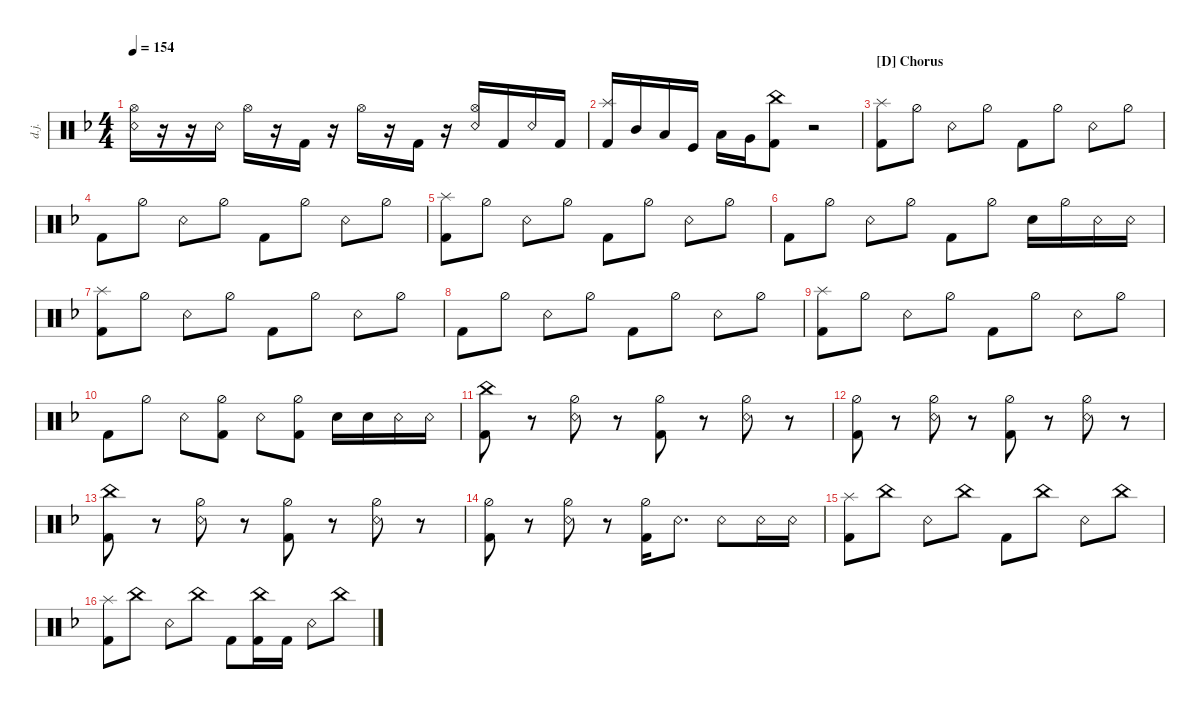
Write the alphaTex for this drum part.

\defaultSystemsLayout 4
\hideDynamics
\bracketExtendMode nobrackets
\otherSystemsTrackNameOrientation horizontal
\track ("Drumkit Jason" "d.j.") {instrument percussion}
\staff {score}
\articulation defaults
\ts (4 4)
\tempo 154
\clef neutral
\ks dminor
("Hi-Hat (open)"{acc forcenatural} "Snare (rim shot)"{acc forcenatural}).16{dy ff beam Down} r.16{beam Down} r.16{beam Down} "Snare (rim shot)"{acc forcenatural}.16{beam Down} "Hi-Hat (open)"{acc forcenatural}.16{beam Down} r.16{beam Down} "Kick (hit) 2"{acc forcenatural}.16{beam Down} r.16{beam Down} "Hi-Hat (open)"{acc forcenatural}.16{beam Down} r.16{beam Down} "Kick (hit) 2"{acc forcenatural}.16{beam Down} r.16{beam Down} ("Hi-Hat (open)"{acc forcenatural} "Snare (rim shot)"{acc forcenatural}).16{beam Up} "Kick (hit) 2"{acc forcenatural}.16{beam Up} "Snare (rim shot)"{acc forcenatural}.16{beam Up} "Kick (hit) 2"{acc forcenatural}.16{beam Up} |
("Splash (hit)"{acc forcenatural} "Kick (hit) 2"{acc forcenatural}).16{beam Up} "Mid Tom (hit)"{acc forcenatural}.16{beam Up} "Low Tom (hit)"{acc forcenatural}.16{beam Up} "Kick (hit)"{acc forcenatural}.16{beam Up} "Low Tom (hit)"{acc forcenatural}.16{beam Down} "Very Low Tom (hit)"{acc forcenatural}.16{beam Down} ("China (hit)"{acc forcenatural} "Kick (hit) 2"{acc forcenatural}).8{beam Down} r.2{beam Down} |
\section ("D" "Chorus")
("Kick (hit) 2"{acc forcenatural} "Splash (hit)"{acc forcenatural}).8{beam Down} "Hi-Hat (half)"{acc forcenatural}.8{beam Down} "Snare (rim shot)"{acc forcenatural}.8{beam Down} "Hi-Hat (half)"{acc forcenatural}.8{beam Down} "Kick (hit) 2"{acc forcenatural}.8{beam Down} "Hi-Hat (half)"{acc forcenatural}.8{beam Down} "Snare (rim shot)"{acc forcenatural}.8{beam Down} "Hi-Hat (half)"{acc forcenatural}.8{beam Down} |
"Kick (hit) 2"{acc forcenatural}.8{beam Down} "Hi-Hat (half)"{acc forcenatural}.8{beam Down} "Snare (rim shot)"{acc forcenatural}.8{beam Down} "Hi-Hat (half)"{acc forcenatural}.8{beam Down} "Kick (hit) 2"{acc forcenatural}.8{beam Down} "Hi-Hat (half)"{acc forcenatural}.8{beam Down} "Snare (rim shot)"{acc forcenatural}.8{beam Down} "Hi-Hat (half)"{acc forcenatural}.8{beam Down} |
("Kick (hit) 2"{acc forcenatural} "Splash (hit)"{acc forcenatural}).8{beam Down} "Hi-Hat (half)"{acc forcenatural}.8{beam Down} "Snare (rim shot)"{acc forcenatural}.8{beam Down} "Hi-Hat (half)"{acc forcenatural}.8{beam Down} "Kick (hit) 2"{acc forcenatural}.8{beam Down} "Hi-Hat (half)"{acc forcenatural}.8{beam Down} "Snare (rim shot)"{acc forcenatural}.8{beam Down} "Hi-Hat (half)"{acc forcenatural}.8{beam Down} |
"Kick (hit) 2"{acc forcenatural}.8{beam Down} "Hi-Hat (half)"{acc forcenatural}.8{beam Down} "Snare (rim shot)"{acc forcenatural}.8{beam Down} "Hi-Hat (half)"{acc forcenatural}.8{beam Down} "Kick (hit) 2"{acc forcenatural}.8{beam Down} "Hi-Hat (half)"{acc forcenatural}.8{beam Down} "Snare (hit) 2"{acc forcenatural}.16{beam Down} "Hi-Hat (half)"{acc forcenatural}.16{beam Down} "Snare (rim shot)"{acc forcenatural}.16{beam Down} "Snare (rim shot)"{acc forcenatural}.16{beam Down} |
("Kick (hit) 2"{acc forcenatural} "Splash (hit)"{acc forcenatural}).8{beam Down} "Hi-Hat (half)"{acc forcenatural}.8{beam Down} "Snare (rim shot)"{acc forcenatural}.8{beam Down} "Hi-Hat (half)"{acc forcenatural}.8{beam Down} "Kick (hit) 2"{acc forcenatural}.8{beam Down} "Hi-Hat (half)"{acc forcenatural}.8{beam Down} "Snare (rim shot)"{acc forcenatural}.8{beam Down} "Hi-Hat (half)"{acc forcenatural}.8{beam Down} |
"Kick (hit) 2"{acc forcenatural}.8{beam Down} "Hi-Hat (half)"{acc forcenatural}.8{beam Down} "Snare (rim shot)"{acc forcenatural}.8{beam Down} "Hi-Hat (half)"{acc forcenatural}.8{beam Down} "Kick (hit) 2"{acc forcenatural}.8{beam Down} "Hi-Hat (half)"{acc forcenatural}.8{beam Down} "Snare (rim shot)"{acc forcenatural}.8{beam Down} "Hi-Hat (half)"{acc forcenatural}.8{beam Down} |
("Kick (hit) 2"{acc forcenatural} "Splash (hit)"{acc forcenatural}).8{beam Down} "Hi-Hat (half)"{acc forcenatural}.8{beam Down} "Snare (rim shot)"{acc forcenatural}.8{beam Down} "Hi-Hat (half)"{acc forcenatural}.8{beam Down} "Kick (hit) 2"{acc forcenatural}.8{beam Down} "Hi-Hat (half)"{acc forcenatural}.8{beam Down} "Snare (rim shot)"{acc forcenatural}.8{beam Down} "Hi-Hat (half)"{acc forcenatural}.8{beam Down} |
"Kick (hit) 2"{acc forcenatural}.8{beam Down} "Hi-Hat (half)"{acc forcenatural}.8{beam Down} "Snare (rim shot)"{acc forcenatural}.8{beam Down} ("Hi-Hat (half)"{acc forcenatural} "Kick (hit) 2"{acc forcenatural}).8{beam Down} "Snare (rim shot)"{acc forcenatural}.8{beam Down} ("Hi-Hat (half)"{acc forcenatural} "Kick (hit) 2"{acc forcenatural}).8{beam Down} "Snare (hit) 2"{acc forcenatural}.16{beam Down} "Snare (hit) 2"{acc forcenatural}.16{beam Down} "Snare (rim shot)"{acc forcenatural}.16{beam Down} "Snare (rim shot)"{acc forcenatural}.16{beam Down} |
("China (hit)"{acc forcenatural} "Kick (hit) 2"{acc forcenatural}).8{beam Down} r.8{beam Down} ("Hi-Hat (half)"{acc forcenatural} "Snare (rim shot)"{acc forcenatural}).8{beam Down} r.8{beam Down} ("Hi-Hat (half)"{acc forcenatural} "Kick (hit) 2"{acc forcenatural}).8{beam Down} r.8{beam Down} ("Hi-Hat (half)"{acc forcenatural} "Snare (rim shot)"{acc forcenatural}).8{beam Down} r.8{beam Down} |
("Hi-Hat (half)"{acc forcenatural} "Kick (hit) 2"{acc forcenatural}).8{beam Down} r.8{beam Down} ("Hi-Hat (half)"{acc forcenatural} "Snare (rim shot)"{acc forcenatural}).8{beam Down} r.8{beam Down} ("Hi-Hat (half)"{acc forcenatural} "Kick (hit) 2"{acc forcenatural}).8{beam Down} r.8{beam Down} ("Hi-Hat (half)"{acc forcenatural} "Snare (rim shot)"{acc forcenatural}).8{beam Down} r.8{beam Down} |
("China (hit)"{acc forcenatural} "Kick (hit) 2"{acc forcenatural}).8{beam Down} r.8{beam Down} ("Hi-Hat (half)"{acc forcenatural} "Snare (rim shot)"{acc forcenatural}).8{beam Down} r.8{beam Down} ("Hi-Hat (half)"{acc forcenatural} "Kick (hit) 2"{acc forcenatural}).8{beam Down} r.8{beam Down} ("Hi-Hat (half)"{acc forcenatural} "Snare (rim shot)"{acc forcenatural}).8{beam Down} r.8{beam Down} |
("Hi-Hat (half)"{acc forcenatural} "Kick (hit) 2"{acc forcenatural}).8{beam Down} r.8{beam Down} ("Hi-Hat (half)"{acc forcenatural} "Snare (rim shot)"{acc forcenatural}).8{beam Down} r.8{beam Down} ("Hi-Hat (half)"{acc forcenatural} "Kick (hit) 2"{acc forcenatural}).16{beam Down} "Snare (rim shot)"{acc forcenatural}.8{d beam Down} "Snare (rim shot)"{acc forcenatural}.8{beam Down} "Snare (rim shot)"{acc forcenatural}.16{beam Down} "Snare (rim shot)"{acc forcenatural}.16{beam Down} |
("Splash (hit)"{acc forcenatural} "Kick (hit) 2"{acc forcenatural}).8{beam Down} "China (hit)"{acc forcenatural}.8{beam Down} "Snare (rim shot)"{acc forcenatural}.8{beam Down} "China (hit)"{acc forcenatural}.8{beam Down} "Kick (hit) 2"{acc forcenatural}.8{beam Down} "China (hit)"{acc forcenatural}.8{beam Down} "Snare (rim shot)"{acc forcenatural}.8{beam Down} "China (hit)"{acc forcenatural}.8{beam Down} |
("Splash (hit)"{acc forcenatural} "Kick (hit) 2"{acc forcenatural}).8{beam Down} "China (hit)"{acc forcenatural}.8{beam Down} "Snare (rim shot)"{acc forcenatural}.8{beam Down} "China (hit)"{acc forcenatural}.8{beam Down} "Kick (hit) 2"{acc forcenatural}.8{beam Down} ("China (hit)"{acc forcenatural} "Kick (hit) 2"{acc forcenatural}).16{beam Down} "Kick (hit) 2"{acc forcenatural}.16{beam Down} "Snare (rim shot)"{acc forcenatural}.8{beam Down} "China (hit)"{acc forcenatural}.8{beam Down}
